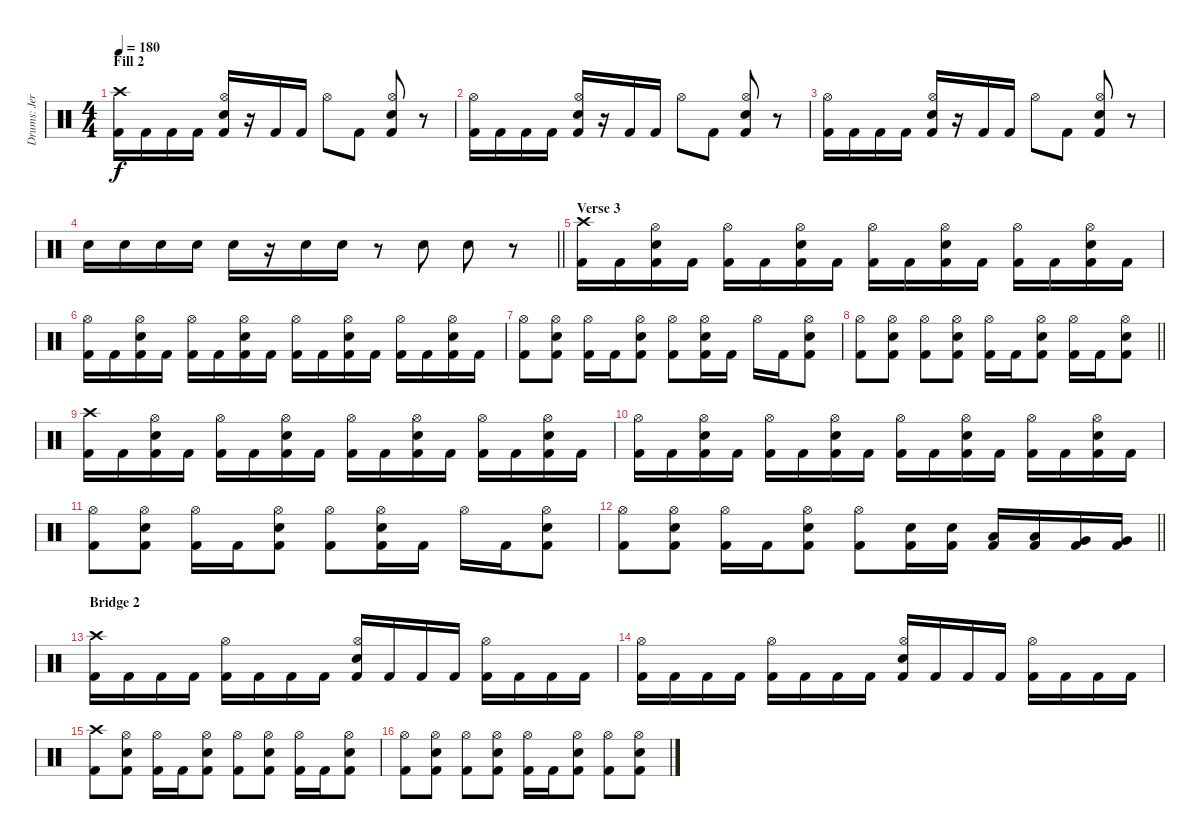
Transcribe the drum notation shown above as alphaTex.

\track ("Drums: Jere Luokkamäki" "Drums: Jer") {instrument percussion}
\staff {score}
\articulation defaults
\ts (4 4)
\section ("" "Fill 2")
\tempo 180
\clef neutral
\ks aminor
("Crash high (hit)" "Kick (hit) 2").16{dy f} "Kick (hit) 2".16 "Kick (hit) 2".16 "Kick (hit) 2".16 ("Hi-Hat (open)" "Electric Snare (hit)" "Kick (hit) 2").16 r.16 "Kick (hit) 2".16 "Kick (hit) 2".16 "Hi-Hat (open)".8 "Kick (hit) 2".8 ("Hi-Hat (open)" "Electric Snare (hit)" "Kick (hit) 2").8 r.8 |
("Hi-Hat (open)" "Kick (hit) 2").16 "Kick (hit) 2".16 "Kick (hit) 2".16 "Kick (hit) 2".16 ("Hi-Hat (open)" "Electric Snare (hit)" "Kick (hit) 2").16 r.16 "Kick (hit) 2".16 "Kick (hit) 2".16 "Hi-Hat (open)".8 "Kick (hit) 2".8 ("Hi-Hat (open)" "Electric Snare (hit)" "Kick (hit) 2").8 r.8 |
("Hi-Hat (open)" "Kick (hit) 2").16 "Kick (hit) 2".16 "Kick (hit) 2".16 "Kick (hit) 2".16 ("Hi-Hat (open)" "Electric Snare (hit)" "Kick (hit) 2").16 r.16 "Kick (hit) 2".16 "Kick (hit) 2".16 "Hi-Hat (open)".8 "Kick (hit) 2".8 ("Hi-Hat (open)" "Electric Snare (hit)" "Kick (hit) 2").8 r.8 |
\barLineRight lightlight "Electric Snare (hit)".16 "Electric Snare (hit)".16 "Electric Snare (hit)".16 "Electric Snare (hit)".16 "Electric Snare (hit)".16
r.16 "Electric Snare (hit)".16 "Electric Snare (hit)".16 r.8 "Electric Snare (hit)".8 "Electric Snare (hit)".8 r.8 |
\section ("" "Verse 3")
("Crash high (hit)" "Kick (hit) 2").16 "Kick (hit) 2".16 ("Hi-Hat (open)" "Electric Snare (hit)" "Kick (hit) 2").16 "Kick (hit) 2".16 ("Hi-Hat (open)" "Kick (hit) 2").16 "Kick (hit) 2".16 ("Hi-Hat (open)" "Electric Snare (hit)" "Kick (hit) 2").16 "Kick (hit) 2".16 ("Hi-Hat (open)" "Kick (hit) 2").16 "Kick (hit) 2".16 ("Hi-Hat (open)" "Electric Snare (hit)" "Kick (hit) 2").16 "Kick (hit) 2".16 ("Hi-Hat (open)" "Kick (hit) 2").16 "Kick (hit) 2".16 ("Hi-Hat (open)" "Electric Snare (hit)" "Kick (hit) 2").16 "Kick (hit) 2".16 |
("Hi-Hat (open)" "Kick (hit) 2").16 "Kick (hit) 2".16 ("Hi-Hat (open)" "Electric Snare (hit)" "Kick (hit) 2").16 "Kick (hit) 2".16 ("Hi-Hat (open)" "Kick (hit) 2").16 "Kick (hit) 2".16 ("Hi-Hat (open)" "Electric Snare (hit)" "Kick (hit) 2").16 "Kick (hit) 2".16 ("Hi-Hat (open)" "Kick (hit) 2").16 "Kick (hit) 2".16 ("Hi-Hat (open)" "Electric Snare (hit)" "Kick (hit) 2").16 "Kick (hit) 2".16 ("Hi-Hat (open)" "Kick (hit) 2").16 "Kick (hit) 2".16 ("Hi-Hat (open)" "Electric Snare (hit)" "Kick (hit) 2").16 "Kick (hit) 2".16 |
("Hi-Hat (open)" "Kick (hit) 2").8 ("Hi-Hat (open)" "Electric Snare (hit)" "Kick (hit) 2").8 ("Hi-Hat (open)" "Kick (hit) 2").16 "Kick (hit) 2".16 ("Hi-Hat (open)" "Electric Snare (hit)" "Kick (hit) 2").8 ("Hi-Hat (open)" "Kick (hit) 2").8 ("Hi-Hat (open)" "Electric Snare (hit)" "Kick (hit) 2").16 "Kick (hit) 2".16 "Hi-Hat (open)".16 "Kick (hit) 2".16 ("Hi-Hat (open)" "Electric Snare (hit)" "Kick (hit) 2").8 |
\barLineRight lightlight
("Hi-Hat (open)" "Kick (hit) 2").8 ("Hi-Hat (open)" "Electric Snare (hit)" "Kick (hit) 2").8 ("Hi-Hat (open)" "Kick (hit) 2").8 ("Hi-Hat (open)" "Electric Snare (hit)" "Kick (hit) 2").8 ("Hi-Hat (open)" "Kick (hit) 2").16 "Kick (hit) 2".16 ("Hi-Hat (open)" "Electric Snare (hit)" "Kick (hit) 2").8 ("Hi-Hat (open)" "Kick (hit) 2").16 "Kick (hit) 2".16 ("Hi-Hat (open)" "Electric Snare (hit)" "Kick (hit) 2").8 |
("Crash high (hit)" "Kick (hit) 2").16 "Kick (hit) 2".16 ("Hi-Hat (open)" "Electric Snare (hit)" "Kick (hit) 2").16 "Kick (hit) 2".16 ("Hi-Hat (open)" "Kick (hit) 2").16 "Kick (hit) 2".16 ("Hi-Hat (open)" "Electric Snare (hit)" "Kick (hit) 2").16 "Kick (hit) 2".16 ("Hi-Hat (open)" "Kick (hit) 2").16 "Kick (hit) 2".16 ("Hi-Hat (open)" "Electric Snare (hit)" "Kick (hit) 2").16 "Kick (hit) 2".16 ("Hi-Hat (open)" "Kick (hit) 2").16 "Kick (hit) 2".16 ("Hi-Hat (open)" "Electric Snare (hit)" "Kick (hit) 2").16 "Kick (hit) 2".16 |
("Hi-Hat (open)" "Kick (hit) 2").16 "Kick (hit) 2".16 ("Hi-Hat (open)" "Electric Snare (hit)" "Kick (hit) 2").16 "Kick (hit) 2".16 ("Hi-Hat (open)" "Kick (hit) 2").16 "Kick (hit) 2".16 ("Hi-Hat (open)" "Electric Snare (hit)" "Kick (hit) 2").16 "Kick (hit) 2".16 ("Hi-Hat (open)" "Kick (hit) 2").16 "Kick (hit) 2".16 ("Hi-Hat (open)" "Electric Snare (hit)" "Kick (hit) 2").16 "Kick (hit) 2".16 ("Hi-Hat (open)" "Kick (hit) 2").16 "Kick (hit) 2".16 ("Hi-Hat (open)" "Electric Snare (hit)" "Kick (hit) 2").16 "Kick (hit) 2".16 |
("Hi-Hat (open)" "Kick (hit) 2").8 ("Hi-Hat (open)" "Electric Snare (hit)" "Kick (hit) 2").8 ("Hi-Hat (open)" "Kick (hit) 2").16 "Kick (hit) 2".16 ("Hi-Hat (open)" "Electric Snare (hit)" "Kick (hit) 2").8 ("Hi-Hat (open)" "Kick (hit) 2").8 ("Hi-Hat (open)" "Electric Snare (hit)" "Kick (hit) 2").16 "Kick (hit) 2".16 "Hi-Hat (open)".16 "Kick (hit) 2".16 ("Hi-Hat (open)" "Electric Snare (hit)" "Kick (hit) 2").8 |
\barLineRight lightlight
("Hi-Hat (open)" "Kick (hit) 2").8 ("Hi-Hat (open)" "Electric Snare (hit)" "Kick (hit) 2").8 ("Hi-Hat (open)" "Kick (hit) 2").16 "Kick (hit) 2".16 ("Hi-Hat (open)" "Electric Snare (hit)" "Kick (hit) 2").8 ("Hi-Hat (open)" "Kick (hit) 2").8 ("Electric Snare (hit)" "Kick (hit) 2").16 ("Electric Snare (hit)" "Kick (hit) 2").16 ("Low Tom (hit)" "Kick (hit) 2").16 ("Low Tom (hit)" "Kick (hit) 2").16 ("Very Low Tom (hit)" "Kick (hit) 2").16 ("Very Low Tom (hit)" "Kick (hit) 2").16 |
\section ("" "Bridge 2")
("Crash high (hit)" "Kick (hit) 2").16 "Kick (hit) 2".16 "Kick (hit) 2".16 "Kick (hit) 2".16 ("Hi-Hat (open)" "Kick (hit) 2").16 "Kick (hit) 2".16 "Kick (hit) 2".16 "Kick (hit) 2".16 ("Hi-Hat (open)" "Electric Snare (hit)" "Kick (hit) 2").16 "Kick (hit) 2".16 "Kick (hit) 2".16 "Kick (hit) 2".16 ("Hi-Hat (open)" "Kick (hit) 2").16 "Kick (hit) 2".16 "Kick (hit) 2".16 "Kick (hit) 2".16 |
("Hi-Hat (open)" "Kick (hit) 2").16 "Kick (hit) 2".16 "Kick (hit) 2".16 "Kick (hit) 2".16 ("Hi-Hat (open)" "Kick (hit) 2").16 "Kick (hit) 2".16 "Kick (hit) 2".16 "Kick (hit) 2".16 ("Hi-Hat (open)" "Electric Snare (hit)" "Kick (hit) 2").16 "Kick (hit) 2".16 "Kick (hit) 2".16 "Kick (hit) 2".16 ("Hi-Hat (open)" "Kick (hit) 2").16 "Kick (hit) 2".16 "Kick (hit) 2".16 "Kick (hit) 2".16 |
("Crash high (hit)" "Kick (hit) 2").8 ("Hi-Hat (open)" "Electric Snare (hit)" "Kick (hit) 2").8 ("Hi-Hat (open)" "Kick (hit) 2").16 "Kick (hit) 2".16 ("Hi-Hat (open)" "Electric Snare (hit)" "Kick (hit) 2").8 ("Hi-Hat (open)" "Kick (hit) 2").8 ("Hi-Hat (open)" "Electric Snare (hit)" "Kick (hit) 2").8 ("Hi-Hat (open)" "Kick (hit) 2").16 "Kick (hit) 2".16 ("Hi-Hat (open)" "Electric Snare (hit)" "Kick (hit) 2").8 |
("Hi-Hat (open)" "Kick (hit) 2").8 ("Hi-Hat (open)" "Electric Snare (hit)" "Kick (hit) 2").8 ("Hi-Hat (open)" "Kick (hit) 2").8 ("Hi-Hat (open)" "Electric Snare (hit)" "Kick (hit) 2").8 ("Hi-Hat (open)" "Kick (hit) 2").16 "Kick (hit) 2".16 ("Hi-Hat (open)" "Electric Snare (hit)" "Kick (hit) 2").8 ("Hi-Hat (open)" "Kick (hit) 2").8 ("Hi-Hat (open)" "Electric Snare (hit)" "Kick (hit) 2").8
